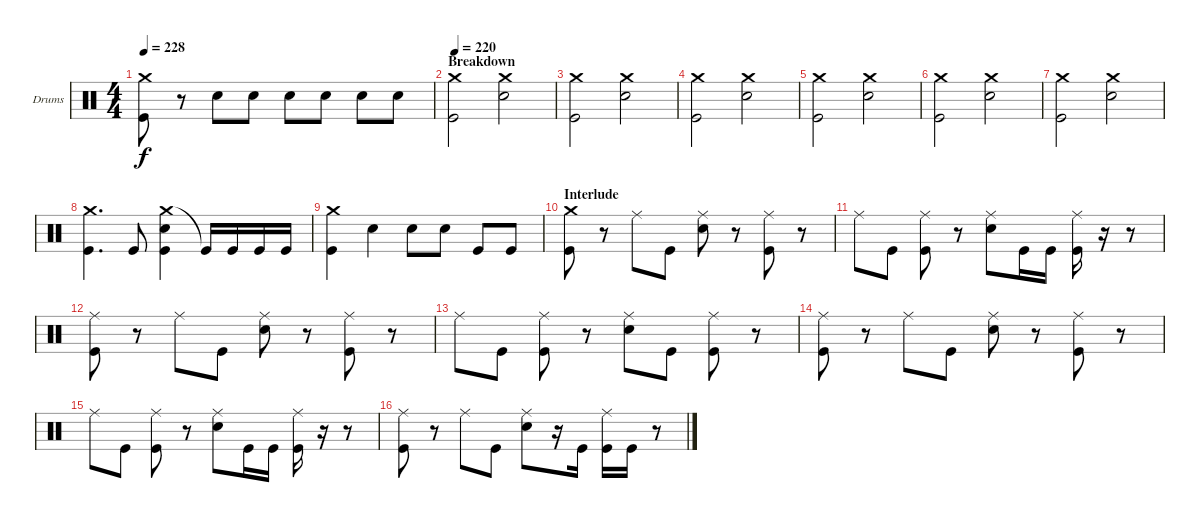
\bracketExtendMode groupsimilarinstruments
\firstSystemTrackNameOrientation horizontal
\otherSystemsTrackNameOrientation horizontal
\track ("Drumkit" "Drums") {instrument percussion}
\staff {score}
\articulation defaults
\ts (4 4)
\tempo 228
\clef neutral
\ks c
("Crash medium (hit)" "Kick (hit)").8{dy f} r.8 "Snare (hit) 2".8 "Snare (hit) 2".8 "Snare (hit) 2".8 "Snare (hit) 2".8 "Snare (hit) 2".8 "Snare (hit) 2".8 |
\section ("" "Breakdown")
\tempo (220 0.0125)
("Crash medium (hit)" "Kick (hit)").2 ("Crash medium (hit)" "Snare (hit) 2").2 |
("Crash medium (hit)" "Kick (hit)").2 ("Crash medium (hit)" "Snare (hit) 2").2 |
("Crash medium (hit)" "Kick (hit)").2 ("Crash medium (hit)" "Snare (hit) 2").2 |
("Crash medium (hit)" "Kick (hit)").2 ("Crash medium (hit)" "Snare (hit) 2").2 |
("Crash medium (hit)" "Kick (hit)").2 ("Crash medium (hit)" "Snare (hit) 2").2 |
("Crash medium (hit)" "Kick (hit)").2 ("Crash medium (hit)" "Snare (hit) 2").2 |
("Crash medium (hit)" "Kick (hit)").4{d} "Kick (hit)".8 ("Crash medium (hit)" "Snare (hit) 2" "Kick (hit)").4 "Kick (hit)"{t}.16 "Kick (hit)".16 "Kick (hit)".16 "Kick (hit)".16 |
("Crash medium (hit)" "Kick (hit)").4 "Snare (hit) 2".4 "Snare (hit) 2".8 "Snare (hit) 2".8 "Kick (hit)".8 "Kick (hit)".8 |
\section ("" "Interlude")
("Crash medium (hit)" "Kick (hit)").8 r.8 "Ride (middle)".8 "Kick (hit)".8 ("Ride (middle)" "Snare (hit) 2").8 r.8 ("Ride (middle)" "Kick (hit)").8 r.8 |
"Ride (middle)".8 "Kick (hit)".8 ("Ride (middle)" "Kick (hit)").8 r.8 ("Ride (middle)" "Snare (hit) 2").8 "Kick (hit)".16 "Kick (hit)".16 ("Ride (middle)" "Kick (hit)").16 r.16 r.8 |
("Ride (middle)" "Kick (hit)").8 r.8 "Ride (middle)".8 "Kick (hit)".8 ("Ride (middle)" "Snare (hit) 2").8 r.8 ("Ride (middle)" "Kick (hit)").8 r.8 |
"Ride (middle)".8 "Kick (hit)".8 ("Ride (middle)" "Kick (hit)").8 r.8 ("Ride (middle)" "Snare (hit) 2").8 "Kick (hit)".8 ("Ride (middle)" "Kick (hit)").8 r.8 |
("Ride (middle)" "Kick (hit)").8 r.8 "Ride (middle)".8 "Kick (hit)".8 ("Ride (middle)" "Snare (hit) 2").8 r.8 ("Ride (middle)" "Kick (hit)").8 r.8 |
"Ride (middle)".8 "Kick (hit)".8 ("Ride (middle)" "Kick (hit)").8 r.8 ("Ride (middle)" "Snare (hit) 2").8 "Kick (hit)".16 "Kick (hit)".16 ("Ride (middle)" "Kick (hit)").16 r.16 r.8 |
("Ride (middle)" "Kick (hit)").8 r.8 "Ride (middle)".8 "Kick (hit)".8 ("Ride (middle)" "Snare (hit) 2").8 r.16 "Kick (hit)".16 ("Ride (middle)" "Kick (hit)").16 "Kick (hit)".16 r.8
